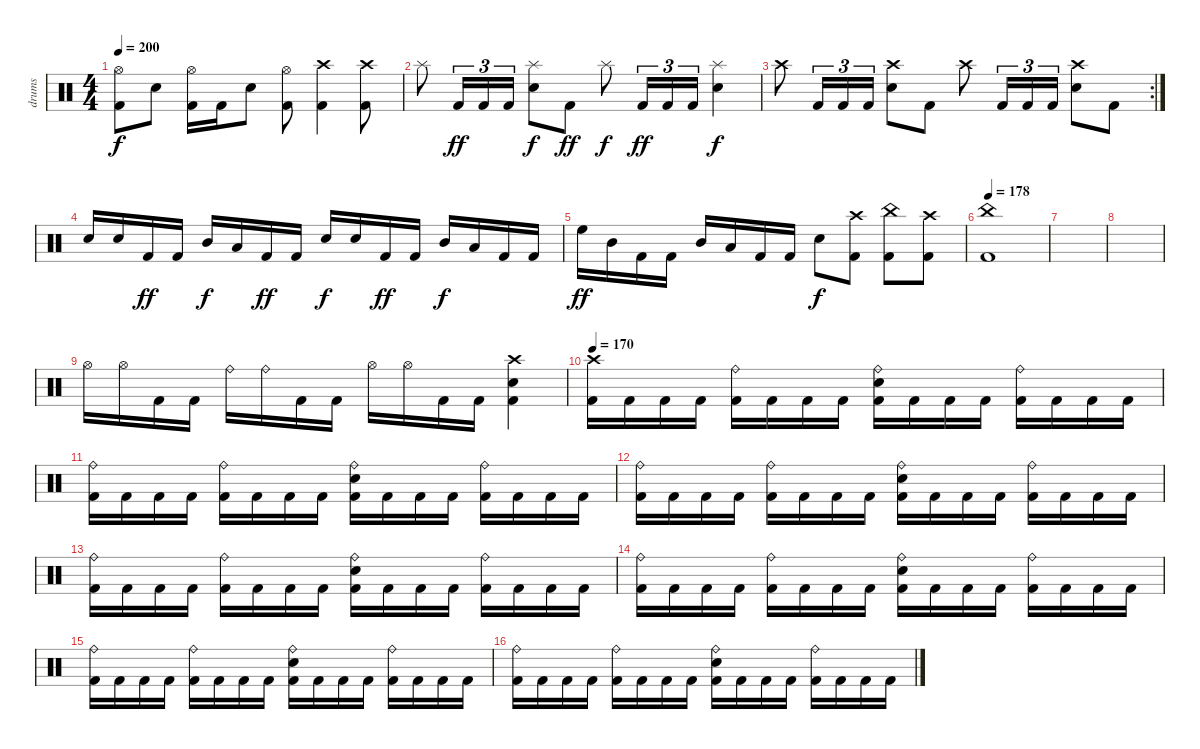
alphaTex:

\track ("drums" "drums") {instrument percussion}
\staff {score}
\articulation defaults
\ts (4 4)
\tempo 200
\clef neutral
\ks c
("Hi-Hat (open)" "Kick (hit) 2").8{dy f} "Electric Snare (hit)".8 ("Hi-Hat (open)" "Kick (hit) 2").16 "Kick (hit) 2".16 "Electric Snare (hit)".8 ("Hi-Hat (open)" "Kick (hit) 2").8 ("Crash high (hit)" "Kick (hit) 2").4 ("Crash high (hit)" "Kick (hit) 2").8 |
"Splash (hit)".8 "Kick (hit) 2".16{tu (3 2) dy ff} "Kick (hit) 2".16{tu (3 2)} "Kick (hit) 2".16{tu (3 2)} ("Splash (hit)" "Electric Snare (hit)").8{dy f} "Kick (hit) 2".8{dy ff} "Splash (hit)".8{dy f} "Kick (hit) 2".16{tu (3 2) dy ff} "Kick (hit) 2".16{tu (3 2)} "Kick (hit) 2".16{tu (3 2)} ("Splash (hit)" "Electric Snare (hit)").4{dy f} |
\rc 2 "Crash high (hit)".8 "Kick (hit) 2".16{tu (3 2)} "Kick (hit) 2".16{tu (3 2)} "Kick (hit) 2".16{tu (3 2)}
("Crash high (hit)" "Electric Snare (hit)").8 "Kick (hit) 2".8 "Crash high (hit)".8 "Kick (hit) 2".16{tu (3 2)} "Kick (hit) 2".16{tu (3 2)} "Kick (hit) 2".16{tu (3 2)} ("Crash high (hit)" "Electric Snare (hit)").8 "Kick (hit) 2".8 |
"Electric Snare (hit)".16 "Electric Snare (hit)".16 "Kick (hit) 2".16{dy ff} "Kick (hit) 2".16 "Mid Tom (hit)".16{dy f} "Low Tom (hit)".16 "Kick (hit) 2".16{dy ff} "Kick (hit) 2".16 "Electric Snare (hit)".16{dy f} "Electric Snare (hit)".16 "Kick (hit) 2".16{dy ff} "Kick (hit) 2".16 "Mid Tom (hit)".16{dy f} "Low Tom (hit)".16 "Kick (hit) 2".16 "Kick (hit) 2".16 |
"High Floor Tom (hit)".16{dy ff} "Mid Tom (hit)".16 "Kick (hit) 2".16 "Kick (hit) 2".16 "Mid Tom (hit)".16 "Low Tom (hit)".16 "Kick (hit) 2".16 "Kick (hit) 2".16 "Electric Snare (hit)".8{dy f} ("Crash high (hit)" "Kick (hit) 2").8 ("China (hit)" "Kick (hit) 2").8 ("Crash high (hit)" "Kick (hit) 2").8 |
\tempo 180
\tempo 178
("China (hit)" "Kick (hit) 2").1 |
|
|
"Hi-Hat (open)".16 "Hi-Hat (open)".16 "Kick (hit) 2".16 "Kick (hit) 2".16 "Ride (bell)".16 "Ride (bell)".16 "Kick (hit) 2".16 "Kick (hit) 2".16 "Hi-Hat (open)".16 "Hi-Hat (open)".16 "Kick (hit) 2".16 "Kick (hit) 2".16 ("Crash high (hit)" "Electric Snare (hit)" "Kick (hit) 2").4 |
\tempo 170
("Crash high (hit)" "Kick (hit) 2").16 "Kick (hit) 2".16 "Kick (hit) 2".16 "Kick (hit) 2".16 ("Ride (bell)" "Kick (hit) 2").16 "Kick (hit) 2".16 "Kick (hit) 2".16 "Kick (hit) 2".16 ("Ride (bell)" "Electric Snare (hit)" "Kick (hit) 2").16 "Kick (hit) 2".16 "Kick (hit) 2".16 "Kick (hit) 2".16 ("Ride (bell)" "Kick (hit) 2").16 "Kick (hit) 2".16 "Kick (hit) 2".16 "Kick (hit) 2".16 |
("Ride (bell)" "Kick (hit) 2").16 "Kick (hit) 2".16 "Kick (hit) 2".16 "Kick (hit) 2".16 ("Ride (bell)" "Kick (hit) 2").16 "Kick (hit) 2".16 "Kick (hit) 2".16 "Kick (hit) 2".16 ("Ride (bell)" "Electric Snare (hit)" "Kick (hit) 2").16 "Kick (hit) 2".16 "Kick (hit) 2".16 "Kick (hit) 2".16 ("Ride (bell)" "Kick (hit) 2").16 "Kick (hit) 2".16 "Kick (hit) 2".16 "Kick (hit) 2".16 |
("Ride (bell)" "Kick (hit) 2").16 "Kick (hit) 2".16 "Kick (hit) 2".16 "Kick (hit) 2".16 ("Ride (bell)" "Kick (hit) 2").16 "Kick (hit) 2".16 "Kick (hit) 2".16 "Kick (hit) 2".16 ("Ride (bell)" "Electric Snare (hit)" "Kick (hit) 2").16 "Kick (hit) 2".16 "Kick (hit) 2".16 "Kick (hit) 2".16 ("Ride (bell)" "Kick (hit) 2").16 "Kick (hit) 2".16 "Kick (hit) 2".16 "Kick (hit) 2".16 |
("Ride (bell)" "Kick (hit) 2").16 "Kick (hit) 2".16 "Kick (hit) 2".16 "Kick (hit) 2".16 ("Ride (bell)" "Kick (hit) 2").16 "Kick (hit) 2".16 "Kick (hit) 2".16 "Kick (hit) 2".16 ("Ride (bell)" "Electric Snare (hit)" "Kick (hit) 2").16 "Kick (hit) 2".16 "Kick (hit) 2".16 "Kick (hit) 2".16 ("Ride (bell)" "Kick (hit) 2").16 "Kick (hit) 2".16 "Kick (hit) 2".16 "Kick (hit) 2".16 |
("Ride (bell)" "Kick (hit) 2").16 "Kick (hit) 2".16 "Kick (hit) 2".16 "Kick (hit) 2".16 ("Ride (bell)" "Kick (hit) 2").16 "Kick (hit) 2".16 "Kick (hit) 2".16 "Kick (hit) 2".16 ("Ride (bell)" "Electric Snare (hit)" "Kick (hit) 2").16 "Kick (hit) 2".16 "Kick (hit) 2".16 "Kick (hit) 2".16 ("Ride (bell)" "Kick (hit) 2").16 "Kick (hit) 2".16 "Kick (hit) 2".16 "Kick (hit) 2".16 |
("Ride (bell)" "Kick (hit) 2").16 "Kick (hit) 2".16 "Kick (hit) 2".16 "Kick (hit) 2".16 ("Ride (bell)" "Kick (hit) 2").16 "Kick (hit) 2".16 "Kick (hit) 2".16 "Kick (hit) 2".16 ("Ride (bell)" "Electric Snare (hit)" "Kick (hit) 2").16 "Kick (hit) 2".16 "Kick (hit) 2".16 "Kick (hit) 2".16 ("Ride (bell)" "Kick (hit) 2").16 "Kick (hit) 2".16 "Kick (hit) 2".16 "Kick (hit) 2".16 |
("Ride (bell)" "Kick (hit) 2").16 "Kick (hit) 2".16 "Kick (hit) 2".16 "Kick (hit) 2".16 ("Ride (bell)" "Kick (hit) 2").16 "Kick (hit) 2".16 "Kick (hit) 2".16 "Kick (hit) 2".16 ("Ride (bell)" "Electric Snare (hit)" "Kick (hit) 2").16 "Kick (hit) 2".16 "Kick (hit) 2".16 "Kick (hit) 2".16 ("Ride (bell)" "Kick (hit) 2").16 "Kick (hit) 2".16 "Kick (hit) 2".16 "Kick (hit) 2".16
